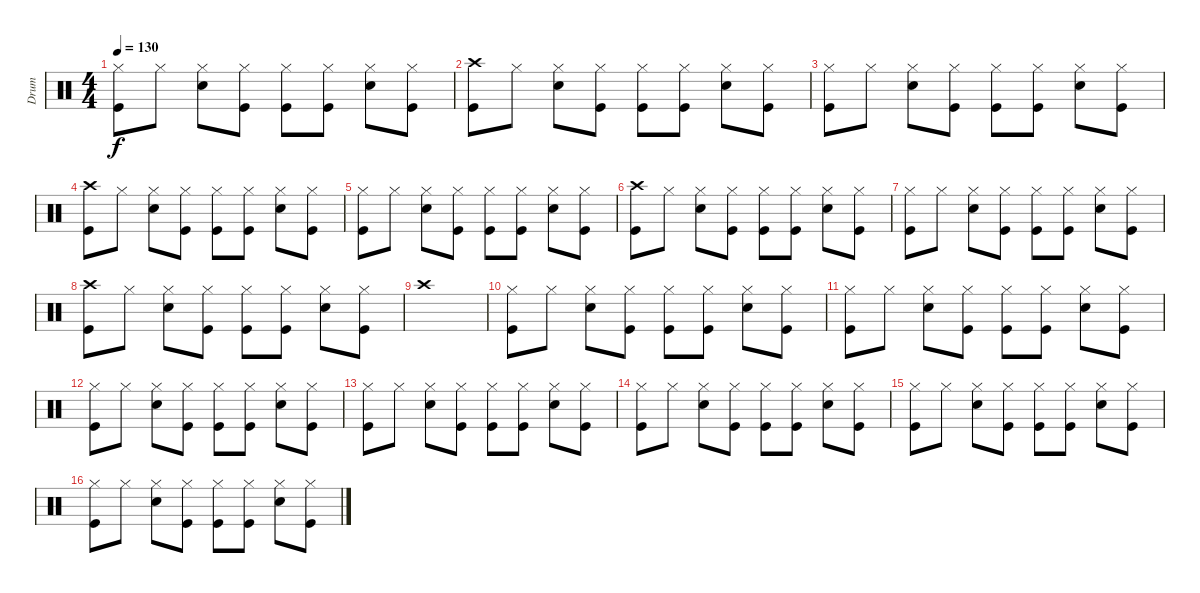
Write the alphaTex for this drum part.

\track ("Drum" "Drum") {instrument percussion}
\staff {score}
\articulation defaults
\ts (4 4)
\tempo 130
\clef neutral
\ks c
("Hi-Hat (closed)" "Kick (hit)").8{dy f} "Hi-Hat (closed)".8 ("Hi-Hat (closed)" "Electric Snare (hit)").8 ("Hi-Hat (closed)" "Kick (hit)").8 ("Hi-Hat (closed)" "Kick (hit)").8 ("Hi-Hat (closed)" "Kick (hit)").8 ("Hi-Hat (closed)" "Electric Snare (hit)").8 ("Hi-Hat (closed)" "Kick (hit)").8 |
("Crash high (hit)" "Kick (hit)").8 "Hi-Hat (closed)".8 ("Hi-Hat (closed)" "Electric Snare (hit)").8 ("Hi-Hat (closed)" "Kick (hit)").8 ("Hi-Hat (closed)" "Kick (hit)").8 ("Hi-Hat (closed)" "Kick (hit)").8 ("Hi-Hat (closed)" "Electric Snare (hit)").8 ("Hi-Hat (closed)" "Kick (hit)").8 |
("Hi-Hat (closed)" "Kick (hit)").8 "Hi-Hat (closed)".8 ("Hi-Hat (closed)" "Electric Snare (hit)").8 ("Hi-Hat (closed)" "Kick (hit)").8 ("Hi-Hat (closed)" "Kick (hit)").8 ("Hi-Hat (closed)" "Kick (hit)").8 ("Hi-Hat (closed)" "Electric Snare (hit)").8 ("Hi-Hat (closed)" "Kick (hit)").8 |
("Crash high (hit)" "Kick (hit)").8 "Hi-Hat (closed)".8 ("Hi-Hat (closed)" "Electric Snare (hit)").8 ("Hi-Hat (closed)" "Kick (hit)").8 ("Hi-Hat (closed)" "Kick (hit)").8 ("Hi-Hat (closed)" "Kick (hit)").8 ("Hi-Hat (closed)" "Electric Snare (hit)").8 ("Hi-Hat (closed)" "Kick (hit)").8 |
("Hi-Hat (closed)" "Kick (hit)").8 "Hi-Hat (closed)".8 ("Hi-Hat (closed)" "Electric Snare (hit)").8 ("Hi-Hat (closed)" "Kick (hit)").8 ("Hi-Hat (closed)" "Kick (hit)").8 ("Hi-Hat (closed)" "Kick (hit)").8 ("Hi-Hat (closed)" "Electric Snare (hit)").8 ("Hi-Hat (closed)" "Kick (hit)").8 |
("Crash high (hit)" "Kick (hit)").8 "Hi-Hat (closed)".8 ("Hi-Hat (closed)" "Electric Snare (hit)").8 ("Hi-Hat (closed)" "Kick (hit)").8 ("Hi-Hat (closed)" "Kick (hit)").8 ("Hi-Hat (closed)" "Kick (hit)").8 ("Hi-Hat (closed)" "Electric Snare (hit)").8 ("Hi-Hat (closed)" "Kick (hit)").8 |
("Hi-Hat (closed)" "Kick (hit)").8 "Hi-Hat (closed)".8 ("Hi-Hat (closed)" "Electric Snare (hit)").8 ("Hi-Hat (closed)" "Kick (hit)").8 ("Hi-Hat (closed)" "Kick (hit)").8 ("Hi-Hat (closed)" "Kick (hit)").8 ("Hi-Hat (closed)" "Electric Snare (hit)").8 ("Hi-Hat (closed)" "Kick (hit)").8 |
("Crash high (hit)" "Kick (hit)").8 "Hi-Hat (closed)".8 ("Hi-Hat (closed)" "Electric Snare (hit)").8 ("Hi-Hat (closed)" "Kick (hit)").8 ("Hi-Hat (closed)" "Kick (hit)").8 ("Hi-Hat (closed)" "Kick (hit)").8 ("Hi-Hat (closed)" "Electric Snare (hit)").8 ("Hi-Hat (closed)" "Kick (hit)").8 |
"Crash high (hit)".1 |
("Hi-Hat (closed)" "Kick (hit)").8 "Hi-Hat (closed)".8 ("Hi-Hat (closed)" "Electric Snare (hit)").8 ("Hi-Hat (closed)" "Kick (hit)").8 ("Hi-Hat (closed)" "Kick (hit)").8 ("Hi-Hat (closed)" "Kick (hit)").8 ("Hi-Hat (closed)" "Electric Snare (hit)").8 ("Hi-Hat (closed)" "Kick (hit)").8 |
("Hi-Hat (closed)" "Kick (hit)").8 "Hi-Hat (closed)".8 ("Hi-Hat (closed)" "Electric Snare (hit)").8 ("Hi-Hat (closed)" "Kick (hit)").8 ("Hi-Hat (closed)" "Kick (hit)").8 ("Hi-Hat (closed)" "Kick (hit)").8 ("Hi-Hat (closed)" "Electric Snare (hit)").8 ("Hi-Hat (closed)" "Kick (hit)").8 |
("Hi-Hat (closed)" "Kick (hit)").8 "Hi-Hat (closed)".8 ("Hi-Hat (closed)" "Electric Snare (hit)").8 ("Hi-Hat (closed)" "Kick (hit)").8 ("Hi-Hat (closed)" "Kick (hit)").8 ("Hi-Hat (closed)" "Kick (hit)").8 ("Hi-Hat (closed)" "Electric Snare (hit)").8 ("Hi-Hat (closed)" "Kick (hit)").8 |
("Hi-Hat (closed)" "Kick (hit)").8 "Hi-Hat (closed)".8 ("Hi-Hat (closed)" "Electric Snare (hit)").8 ("Hi-Hat (closed)" "Kick (hit)").8 ("Hi-Hat (closed)" "Kick (hit)").8 ("Hi-Hat (closed)" "Kick (hit)").8 ("Hi-Hat (closed)" "Electric Snare (hit)").8 ("Hi-Hat (closed)" "Kick (hit)").8 |
("Hi-Hat (closed)" "Kick (hit)").8 "Hi-Hat (closed)".8 ("Hi-Hat (closed)" "Electric Snare (hit)").8 ("Hi-Hat (closed)" "Kick (hit)").8 ("Hi-Hat (closed)" "Kick (hit)").8 ("Hi-Hat (closed)" "Kick (hit)").8 ("Hi-Hat (closed)" "Electric Snare (hit)").8 ("Hi-Hat (closed)" "Kick (hit)").8 |
("Hi-Hat (closed)" "Kick (hit)").8 "Hi-Hat (closed)".8 ("Hi-Hat (closed)" "Electric Snare (hit)").8 ("Hi-Hat (closed)" "Kick (hit)").8 ("Hi-Hat (closed)" "Kick (hit)").8 ("Hi-Hat (closed)" "Kick (hit)").8 ("Hi-Hat (closed)" "Electric Snare (hit)").8 ("Hi-Hat (closed)" "Kick (hit)").8 |
("Hi-Hat (closed)" "Kick (hit)").8 "Hi-Hat (closed)".8 ("Hi-Hat (closed)" "Electric Snare (hit)").8 ("Hi-Hat (closed)" "Kick (hit)").8 ("Hi-Hat (closed)" "Kick (hit)").8 ("Hi-Hat (closed)" "Kick (hit)").8 ("Hi-Hat (closed)" "Electric Snare (hit)").8 ("Hi-Hat (closed)" "Kick (hit)").8
